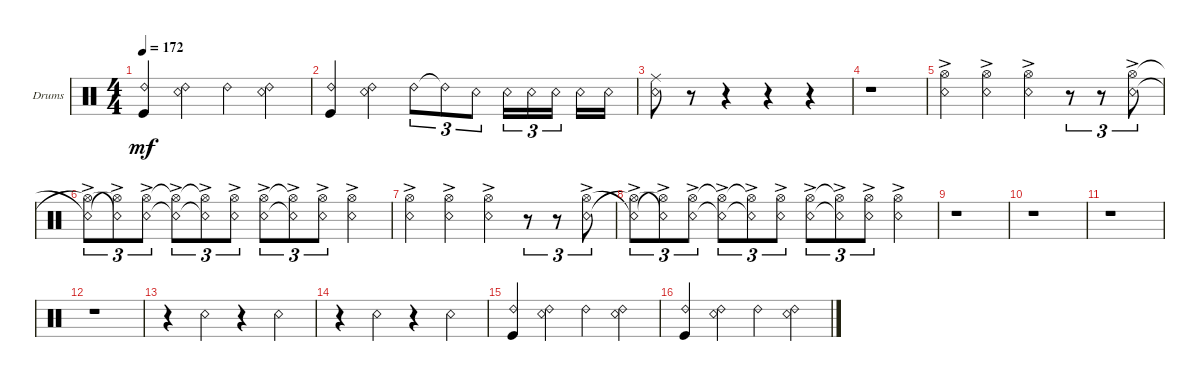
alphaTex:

\defaultSystemsLayout 4
\bracketExtendMode groupsimilarinstruments
\firstSystemTrackNameOrientation horizontal
\otherSystemsTrackNameOrientation horizontal
\track ("Drums" "Drums") {instrument percussion}
\staff {score}
\articulation defaults
\ts (4 4)
\tempo 172
\clef neutral
\scale
0.333333
\ks c
("Ride (bell) 2" "Kick (hit)").4{dy mf} ("Ride (bell) 2" "Snare (rim shot)").4 "Ride (bell) 2".4 ("Snare (rim shot)" "Ride (bell) 2").4 |
\scale
0.333333 ("Ride (bell) 2" "Kick (hit)").4 ("Ride (bell) 2" "Snare (rim shot)").4 "Ride (bell) 2".8{tu (3 2)} "Ride (bell) 2"{t}.8{tu (3 2)} "Snare (rim shot)".8{tu (3 2)} "Snare (rim shot)".16{tu (3 2)} "Snare (rim shot)".16{tu (3 2)} "Snare (rim shot)".16{tu (3 2)} "Snare (rim shot)".16 "Snare (rim shot)".16 |
\scale
0.333333 ("Snare (rim shot)" "Ride (middle)").8 r.8 r.4 r.4 r.4 |
\scale
0.333333 r.1 |
\scale
0.333333 ("Hi-Hat (open)"{ac} "Snare (rim shot)"{ac}).4 ("Hi-Hat (open)"{ac} "Snare (rim shot)"{ac}).4 ("Hi-Hat (open)"{ac} "Snare (rim shot)"{ac}).4 r.8{tu (3 2)} r.8{tu (3 2)} ("Snare (rim shot)"{ac} "Hi-Hat (open)"{ac}).8{tu (3 2)} |
\scale
0.333333 ("Hi-Hat (open)"{ac t} "Snare (rim shot)"{ac t}).8{tu (3 2)} ("Snare (rim shot)"{ac t} "Hi-Hat (open)"{ac t}).8{tu (3 2)} ("Hi-Hat (open)"{ac} "Snare (rim shot)"{ac}).8{tu (3 2)} ("Hi-Hat (open)"{ac t} "Snare (rim shot)"{ac t}).8{tu (3 2)} ("Hi-Hat (open)"{ac t} "Snare (rim shot)"{ac t}).8{tu (3 2)} ("Hi-Hat (open)"{ac} "Snare (rim shot)"{ac}).8{tu (3 2)} ("Snare (rim shot)"{ac} "Hi-Hat (open)"{ac}).8{tu (3 2)} ("Snare (rim shot)"{ac t} "Hi-Hat (open)"{ac t}).8{tu (3 2)} ("Snare (rim shot)"{ac} "Hi-Hat (open)"{ac}).8{tu (3 2)} ("Hi-Hat (open)"{ac} "Snare (rim shot)"{ac}).4 |
\scale
0.333333 ("Hi-Hat (open)"{ac} "Snare (rim shot)"{ac}).4 ("Hi-Hat (open)"{ac} "Snare (rim shot)"{ac}).4 ("Hi-Hat (open)"{ac} "Snare (rim shot)"{ac}).4 r.8{tu (3 2)} r.8{tu (3 2)} ("Snare (rim shot)"{ac} "Hi-Hat (open)"{ac}).8{tu (3 2)} |
\scale
0.333333 ("Hi-Hat (open)"{ac t} "Snare (rim shot)"{ac t}).8{tu (3 2)} ("Snare (rim shot)"{ac t} "Hi-Hat (open)"{ac t}).8{tu (3 2)} ("Hi-Hat (open)"{ac} "Snare (rim shot)"{ac}).8{tu (3 2)} ("Hi-Hat (open)"{ac t} "Snare (rim shot)"{ac t}).8{tu (3 2)} ("Hi-Hat (open)"{ac t} "Snare (rim shot)"{ac t}).8{tu (3 2)} ("Hi-Hat (open)"{ac} "Snare (rim shot)"{ac}).8{tu (3 2)} ("Snare (rim shot)"{ac} "Hi-Hat (open)"{ac}).8{tu (3 2)} ("Snare (rim shot)"{ac t} "Hi-Hat (open)"{ac t}).8{tu (3 2)} ("Snare (rim shot)"{ac} "Hi-Hat (open)"{ac}).8{tu (3 2)} ("Hi-Hat (open)"{ac} "Snare (rim shot)"{ac}).4 |
\scale
0.333333 r.1 |
\scale
0.333333 r.1 |
\scale
0.333333 r.1 |
\scale
0.333333 r.1 |
\scale
0.333333 r.4 "Snare (rim shot)".4 r.4 "Snare (rim shot)".4 |
r.4 "Snare (rim shot)".4 r.4 "Snare (rim shot)".4 |
\scale
0.333333 ("Ride (bell) 2" "Kick (hit)").4 ("Ride (bell) 2" "Snare (rim shot)").4 "Ride (bell) 2".4 ("Snare (rim shot)" "Ride (bell) 2").4 |
\scale
0.333333 ("Ride (bell) 2" "Kick (hit)").4 ("Ride (bell) 2" "Snare (rim shot)").4 "Ride (bell) 2".4 ("Snare (rim shot)" "Ride (bell) 2").4
